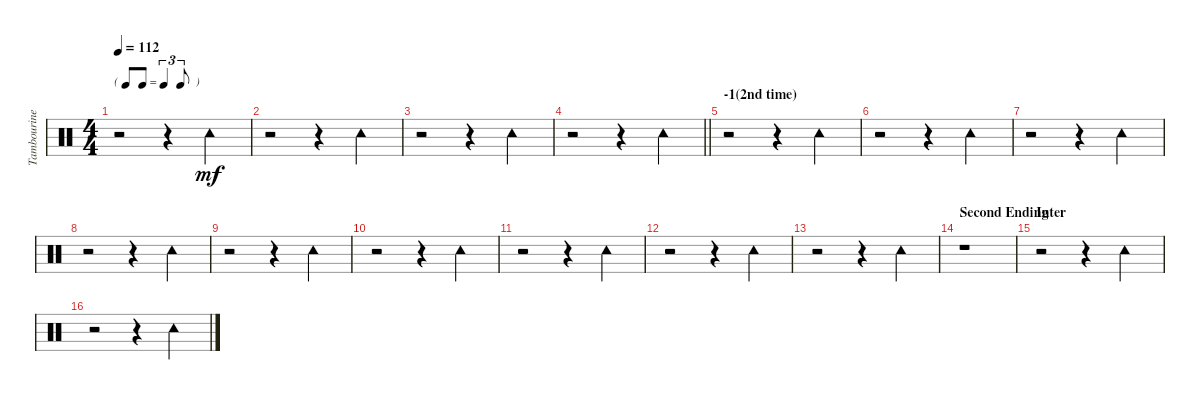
\track ("Tambourine" "Tambourine") {instrument percussion}
\staff {score}
\articulation defaults
\ts (4 4)
\tf triplet8th
\tempo 112
\clef neutral
\ks c
r.2{dy mf} r.4 "Tambourine (hit)".4 |
r.2 r.4 "Tambourine (hit)".4 |
r.2 r.4 "Tambourine (hit)".4 |
\barLineRight lightlight
r.2 r.4 "Tambourine (hit)".4 |
\section ("" "-1(2nd time)")
r.2 r.4 "Tambourine (hit)".4 |
r.2 r.4 "Tambourine (hit)".4 |
r.2 r.4 "Tambourine (hit)".4 |
r.2 r.4 "Tambourine (hit)".4 |
r.2 r.4 "Tambourine (hit)".4 |
r.2 r.4 "Tambourine (hit)".4 |
r.2 r.4 "Tambourine (hit)".4 |
r.2 r.4 "Tambourine (hit)".4 |
r.2 r.4 "Tambourine (hit)".4 |
\section ("" "Second Ending")
r.1 |
\section ("" "Inter")
r.2 r.4 "Tambourine (hit)".4 |
r.2 r.4 "Tambourine (hit)".4
